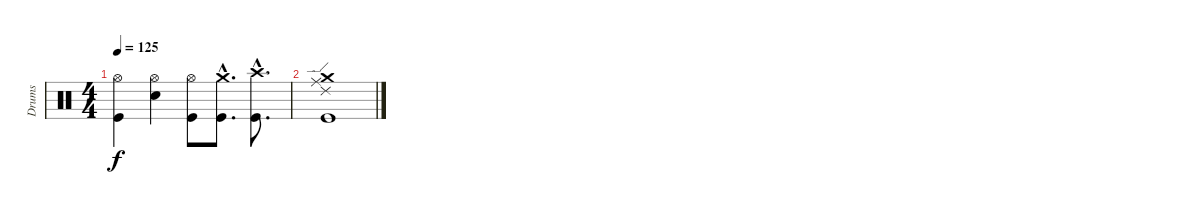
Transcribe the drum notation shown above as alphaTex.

\track ("Drums" "Drums") {instrument percussion}
\staff {score}
\articulation defaults
\ts (4 4)
\tempo 125
\clef neutral
\ks c
("Hi-Hat (open)" "Kick (hit)").4{dy f} ("Hi-Hat (open)" "Electric Snare (hit)").4 ("Hi-Hat (open)" "Kick (hit)").8 ("Crash medium (hit)"{hac} "Kick (hit)"{hac}).8{d} ("Crash high (hit)"{hac} "Kick (hit)"{hac}).8{d} |
("Crash medium (hit)" "Ride (edge) 2" "Ride (middle)" "Kick (hit)").1
